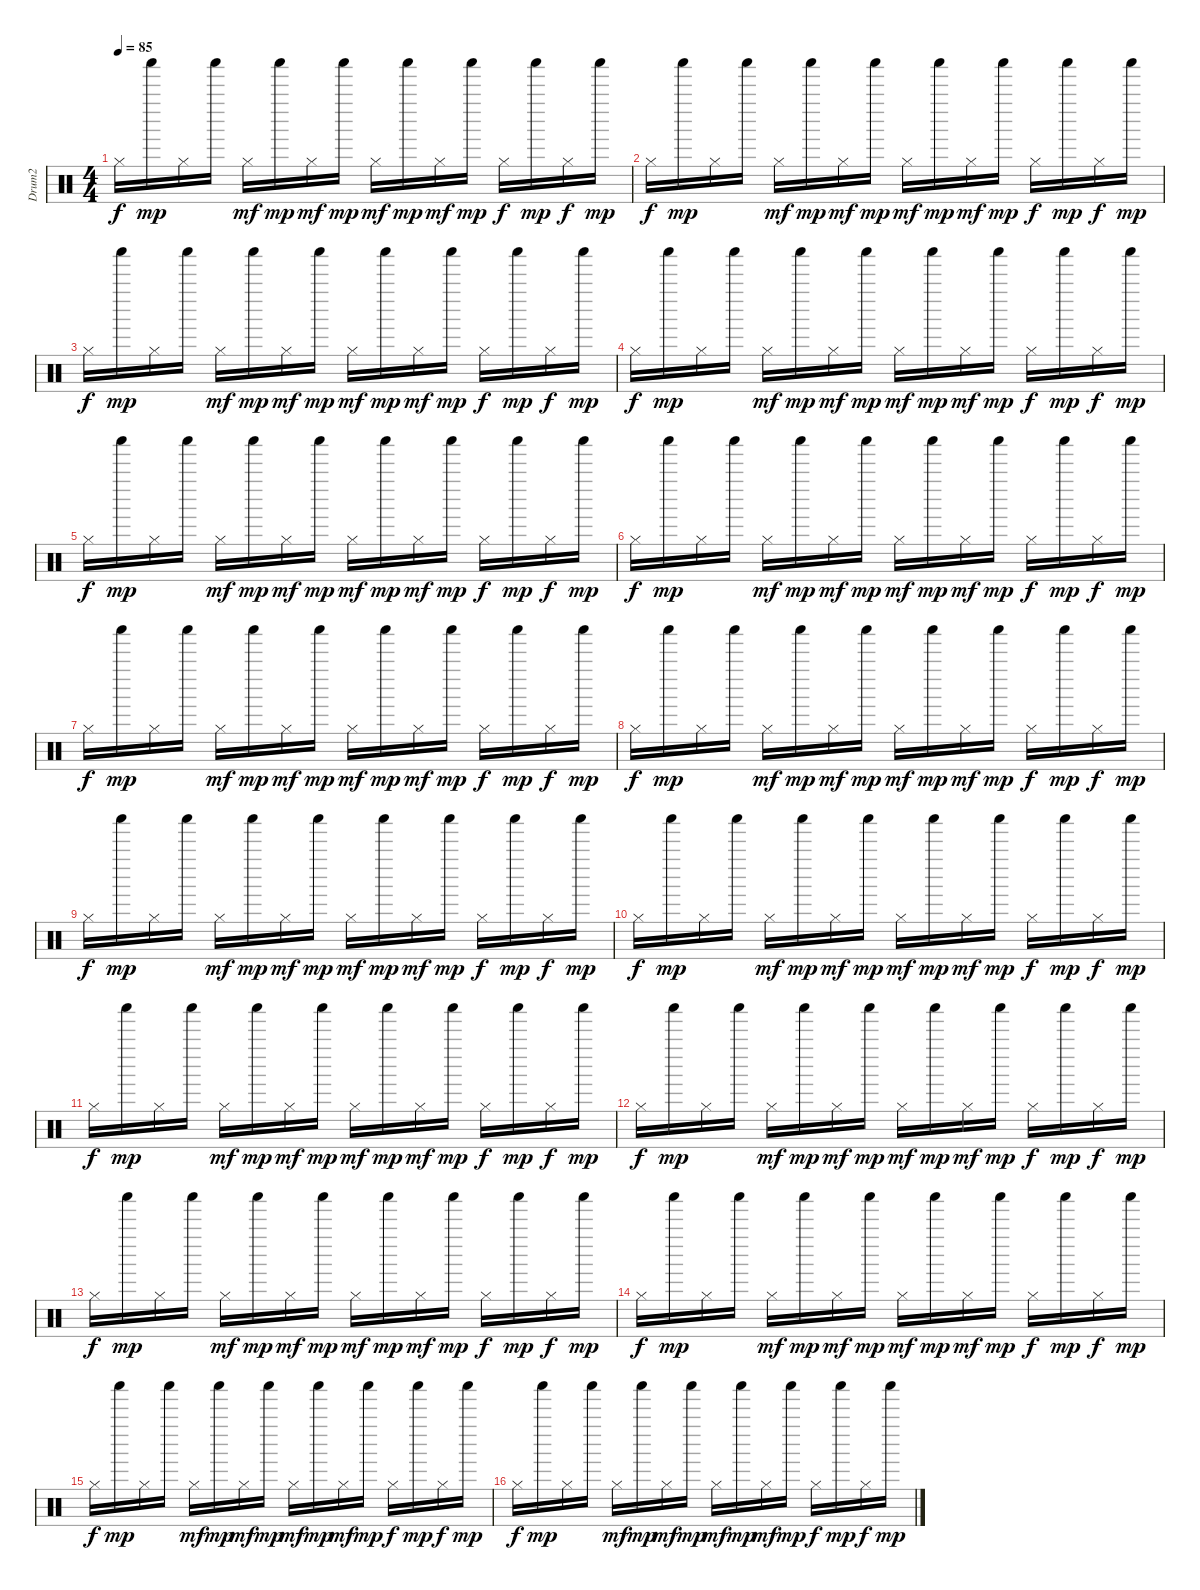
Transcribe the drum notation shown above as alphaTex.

\track ("Drum2" "Drum2") {instrument percussion}
\staff {score}
\articulation defaults
\ts (4 4)
\tempo 85
\clef neutral
\ks c "Hi-Hat (closed)".16{dy f} "Shaker (hit)".16{dy mp} "Hi-Hat (closed)".16 "Shaker (hit)".16 "Hi-Hat (closed)".16{dy mf} "Shaker (hit)".16{dy mp} "Hi-Hat (closed)".16{dy mf} "Shaker (hit)".16{dy mp} "Hi-Hat (closed)".16{dy mf} "Shaker (hit)".16{dy mp} "Hi-Hat (closed)".16{dy mf} "Shaker (hit)".16{dy mp} "Hi-Hat (closed)".16{dy f} "Shaker (hit)".16{dy mp} "Hi-Hat (closed)".16{dy f} "Shaker (hit)".16{dy mp}
|
"Hi-Hat (closed)".16{dy f} "Shaker (hit)".16{dy mp} "Hi-Hat (closed)".16 "Shaker (hit)".16 "Hi-Hat (closed)".16{dy mf} "Shaker (hit)".16{dy mp} "Hi-Hat (closed)".16{dy mf} "Shaker (hit)".16{dy mp} "Hi-Hat (closed)".16{dy mf} "Shaker (hit)".16{dy mp} "Hi-Hat (closed)".16{dy mf} "Shaker (hit)".16{dy mp} "Hi-Hat (closed)".16{dy f} "Shaker (hit)".16{dy mp} "Hi-Hat (closed)".16{dy f} "Shaker (hit)".16{dy mp} |
"Hi-Hat (closed)".16{dy f} "Shaker (hit)".16{dy mp} "Hi-Hat (closed)".16 "Shaker (hit)".16 "Hi-Hat (closed)".16{dy mf} "Shaker (hit)".16{dy mp} "Hi-Hat (closed)".16{dy mf} "Shaker (hit)".16{dy mp} "Hi-Hat (closed)".16{dy mf} "Shaker (hit)".16{dy mp} "Hi-Hat (closed)".16{dy mf} "Shaker (hit)".16{dy mp} "Hi-Hat (closed)".16{dy f} "Shaker (hit)".16{dy mp} "Hi-Hat (closed)".16{dy f} "Shaker (hit)".16{dy mp} |
"Hi-Hat (closed)".16{dy f} "Shaker (hit)".16{dy mp} "Hi-Hat (closed)".16 "Shaker (hit)".16 "Hi-Hat (closed)".16{dy mf} "Shaker (hit)".16{dy mp} "Hi-Hat (closed)".16{dy mf} "Shaker (hit)".16{dy mp} "Hi-Hat (closed)".16{dy mf} "Shaker (hit)".16{dy mp} "Hi-Hat (closed)".16{dy mf} "Shaker (hit)".16{dy mp} "Hi-Hat (closed)".16{dy f} "Shaker (hit)".16{dy mp} "Hi-Hat (closed)".16{dy f} "Shaker (hit)".16{dy mp} |
"Hi-Hat (closed)".16{dy f} "Shaker (hit)".16{dy mp} "Hi-Hat (closed)".16 "Shaker (hit)".16 "Hi-Hat (closed)".16{dy mf} "Shaker (hit)".16{dy mp} "Hi-Hat (closed)".16{dy mf} "Shaker (hit)".16{dy mp} "Hi-Hat (closed)".16{dy mf} "Shaker (hit)".16{dy mp} "Hi-Hat (closed)".16{dy mf} "Shaker (hit)".16{dy mp} "Hi-Hat (closed)".16{dy f} "Shaker (hit)".16{dy mp} "Hi-Hat (closed)".16{dy f} "Shaker (hit)".16{dy mp} |
"Hi-Hat (closed)".16{dy f} "Shaker (hit)".16{dy mp} "Hi-Hat (closed)".16 "Shaker (hit)".16 "Hi-Hat (closed)".16{dy mf} "Shaker (hit)".16{dy mp} "Hi-Hat (closed)".16{dy mf} "Shaker (hit)".16{dy mp} "Hi-Hat (closed)".16{dy mf} "Shaker (hit)".16{dy mp} "Hi-Hat (closed)".16{dy mf} "Shaker (hit)".16{dy mp} "Hi-Hat (closed)".16{dy f} "Shaker (hit)".16{dy mp} "Hi-Hat (closed)".16{dy f} "Shaker (hit)".16{dy mp} |
"Hi-Hat (closed)".16{dy f} "Shaker (hit)".16{dy mp} "Hi-Hat (closed)".16 "Shaker (hit)".16 "Hi-Hat (closed)".16{dy mf} "Shaker (hit)".16{dy mp} "Hi-Hat (closed)".16{dy mf} "Shaker (hit)".16{dy mp} "Hi-Hat (closed)".16{dy mf} "Shaker (hit)".16{dy mp} "Hi-Hat (closed)".16{dy mf} "Shaker (hit)".16{dy mp} "Hi-Hat (closed)".16{dy f} "Shaker (hit)".16{dy mp} "Hi-Hat (closed)".16{dy f} "Shaker (hit)".16{dy mp} |
"Hi-Hat (closed)".16{dy f} "Shaker (hit)".16{dy mp} "Hi-Hat (closed)".16 "Shaker (hit)".16 "Hi-Hat (closed)".16{dy mf} "Shaker (hit)".16{dy mp} "Hi-Hat (closed)".16{dy mf} "Shaker (hit)".16{dy mp} "Hi-Hat (closed)".16{dy mf} "Shaker (hit)".16{dy mp} "Hi-Hat (closed)".16{dy mf} "Shaker (hit)".16{dy mp} "Hi-Hat (closed)".16{dy f} "Shaker (hit)".16{dy mp} "Hi-Hat (closed)".16{dy f} "Shaker (hit)".16{dy mp} |
"Hi-Hat (closed)".16{dy f} "Shaker (hit)".16{dy mp} "Hi-Hat (closed)".16 "Shaker (hit)".16 "Hi-Hat (closed)".16{dy mf} "Shaker (hit)".16{dy mp} "Hi-Hat (closed)".16{dy mf} "Shaker (hit)".16{dy mp} "Hi-Hat (closed)".16{dy mf} "Shaker (hit)".16{dy mp} "Hi-Hat (closed)".16{dy mf} "Shaker (hit)".16{dy mp} "Hi-Hat (closed)".16{dy f} "Shaker (hit)".16{dy mp} "Hi-Hat (closed)".16{dy f} "Shaker (hit)".16{dy mp} |
"Hi-Hat (closed)".16{dy f} "Shaker (hit)".16{dy mp} "Hi-Hat (closed)".16 "Shaker (hit)".16 "Hi-Hat (closed)".16{dy mf} "Shaker (hit)".16{dy mp} "Hi-Hat (closed)".16{dy mf} "Shaker (hit)".16{dy mp} "Hi-Hat (closed)".16{dy mf} "Shaker (hit)".16{dy mp} "Hi-Hat (closed)".16{dy mf} "Shaker (hit)".16{dy mp} "Hi-Hat (closed)".16{dy f} "Shaker (hit)".16{dy mp} "Hi-Hat (closed)".16{dy f} "Shaker (hit)".16{dy mp} |
"Hi-Hat (closed)".16{dy f} "Shaker (hit)".16{dy mp} "Hi-Hat (closed)".16 "Shaker (hit)".16 "Hi-Hat (closed)".16{dy mf} "Shaker (hit)".16{dy mp} "Hi-Hat (closed)".16{dy mf} "Shaker (hit)".16{dy mp} "Hi-Hat (closed)".16{dy mf} "Shaker (hit)".16{dy mp} "Hi-Hat (closed)".16{dy mf} "Shaker (hit)".16{dy mp} "Hi-Hat (closed)".16{dy f} "Shaker (hit)".16{dy mp} "Hi-Hat (closed)".16{dy f} "Shaker (hit)".16{dy mp} |
"Hi-Hat (closed)".16{dy f} "Shaker (hit)".16{dy mp} "Hi-Hat (closed)".16 "Shaker (hit)".16 "Hi-Hat (closed)".16{dy mf} "Shaker (hit)".16{dy mp} "Hi-Hat (closed)".16{dy mf} "Shaker (hit)".16{dy mp} "Hi-Hat (closed)".16{dy mf} "Shaker (hit)".16{dy mp} "Hi-Hat (closed)".16{dy mf} "Shaker (hit)".16{dy mp} "Hi-Hat (closed)".16{dy f} "Shaker (hit)".16{dy mp} "Hi-Hat (closed)".16{dy f} "Shaker (hit)".16{dy mp} |
"Hi-Hat (closed)".16{dy f} "Shaker (hit)".16{dy mp} "Hi-Hat (closed)".16 "Shaker (hit)".16 "Hi-Hat (closed)".16{dy mf} "Shaker (hit)".16{dy mp} "Hi-Hat (closed)".16{dy mf} "Shaker (hit)".16{dy mp} "Hi-Hat (closed)".16{dy mf} "Shaker (hit)".16{dy mp} "Hi-Hat (closed)".16{dy mf} "Shaker (hit)".16{dy mp} "Hi-Hat (closed)".16{dy f} "Shaker (hit)".16{dy mp} "Hi-Hat (closed)".16{dy f} "Shaker (hit)".16{dy mp} |
"Hi-Hat (closed)".16{dy f} "Shaker (hit)".16{dy mp} "Hi-Hat (closed)".16 "Shaker (hit)".16 "Hi-Hat (closed)".16{dy mf} "Shaker (hit)".16{dy mp} "Hi-Hat (closed)".16{dy mf} "Shaker (hit)".16{dy mp} "Hi-Hat (closed)".16{dy mf} "Shaker (hit)".16{dy mp} "Hi-Hat (closed)".16{dy mf} "Shaker (hit)".16{dy mp} "Hi-Hat (closed)".16{dy f} "Shaker (hit)".16{dy mp} "Hi-Hat (closed)".16{dy f} "Shaker (hit)".16{dy mp} |
"Hi-Hat (closed)".16{dy f} "Shaker (hit)".16{dy mp} "Hi-Hat (closed)".16 "Shaker (hit)".16 "Hi-Hat (closed)".16{dy mf} "Shaker (hit)".16{dy mp} "Hi-Hat (closed)".16{dy mf} "Shaker (hit)".16{dy mp} "Hi-Hat (closed)".16{dy mf} "Shaker (hit)".16{dy mp} "Hi-Hat (closed)".16{dy mf} "Shaker (hit)".16{dy mp} "Hi-Hat (closed)".16{dy f} "Shaker (hit)".16{dy mp} "Hi-Hat (closed)".16{dy f} "Shaker (hit)".16{dy mp} |
"Hi-Hat (closed)".16{dy f} "Shaker (hit)".16{dy mp} "Hi-Hat (closed)".16 "Shaker (hit)".16 "Hi-Hat (closed)".16{dy mf} "Shaker (hit)".16{dy mp} "Hi-Hat (closed)".16{dy mf} "Shaker (hit)".16{dy mp} "Hi-Hat (closed)".16{dy mf} "Shaker (hit)".16{dy mp} "Hi-Hat (closed)".16{dy mf} "Shaker (hit)".16{dy mp} "Hi-Hat (closed)".16{dy f} "Shaker (hit)".16{dy mp} "Hi-Hat (closed)".16{dy f} "Shaker (hit)".16{dy mp}
